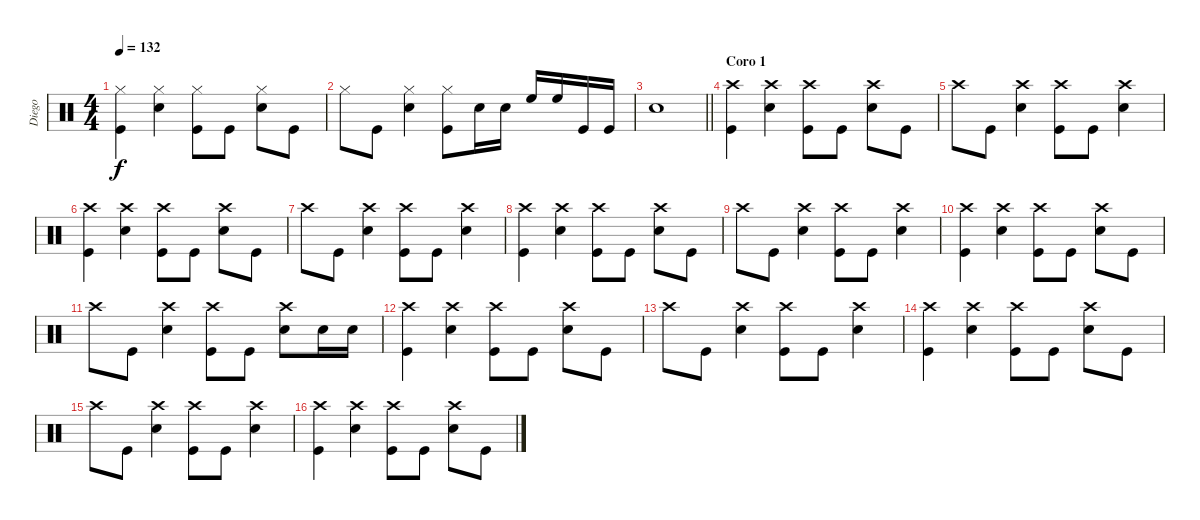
\track ("Diego" "Diego") {instrument percussion}
\staff {score}
\articulation defaults
\ts (4 4)
\tempo 132
\clef neutral
\ks c
("Hi-Hat (closed)" "Kick (hit)").4{dy f} ("Hi-Hat (closed)" "Snare (hit) 2").4 ("Hi-Hat (closed)" "Kick (hit)").8 "Kick (hit)".8 ("Hi-Hat (closed)" "Snare (hit) 2").8 "Kick (hit)".8 |
"Hi-Hat (closed)".8 "Kick (hit)".8 ("Hi-Hat (closed)" "Snare (hit) 2").4 ("Hi-Hat (closed)" "Kick (hit)").8 "Snare (hit) 2".16 "Snare (hit) 2".16 "High Floor Tom (hit)".16 "High Floor Tom (hit)".16 "Kick (hit)".16 "Kick (hit)".16 |
\barLineRight lightlight "Snare (hit) 2".1
|
\section ("" "Coro 1")
("Crash high (hit)" "Kick (hit)").4 ("Crash high (hit)" "Snare (hit) 2").4 ("Crash high (hit)" "Kick (hit)").8 "Kick (hit)".8 ("Crash high (hit)" "Snare (hit) 2").8 "Kick (hit)".8 |
"Crash high (hit)".8 "Kick (hit)".8 ("Crash high (hit)" "Snare (hit) 2").4 ("Crash high (hit)" "Kick (hit)").8 "Kick (hit)".8 ("Crash high (hit)" "Snare (hit) 2").4 |
("Crash high (hit)" "Kick (hit)").4 ("Crash high (hit)" "Snare (hit) 2").4 ("Crash high (hit)" "Kick (hit)").8 "Kick (hit)".8 ("Crash high (hit)" "Snare (hit) 2").8 "Kick (hit)".8 |
"Crash high (hit)".8 "Kick (hit)".8 ("Crash high (hit)" "Snare (hit) 2").4 ("Crash high (hit)" "Kick (hit)").8 "Kick (hit)".8 ("Crash high (hit)" "Snare (hit) 2").4 |
("Crash high (hit)" "Kick (hit)").4 ("Crash high (hit)" "Snare (hit) 2").4 ("Crash high (hit)" "Kick (hit)").8 "Kick (hit)".8 ("Crash high (hit)" "Snare (hit) 2").8 "Kick (hit)".8 |
"Crash high (hit)".8 "Kick (hit)".8 ("Crash high (hit)" "Snare (hit) 2").4 ("Crash high (hit)" "Kick (hit)").8 "Kick (hit)".8 ("Crash high (hit)" "Snare (hit) 2").4 |
("Crash high (hit)" "Kick (hit)").4 ("Crash high (hit)" "Snare (hit) 2").4 ("Crash high (hit)" "Kick (hit)").8 "Kick (hit)".8 ("Crash high (hit)" "Snare (hit) 2").8 "Kick (hit)".8 |
"Crash high (hit)".8 "Kick (hit)".8 ("Crash high (hit)" "Snare (hit) 2").4 ("Crash high (hit)" "Kick (hit)").8 "Kick (hit)".8 ("Crash high (hit)" "Snare (hit) 2").8 "Snare (hit) 2".16 "Snare (hit) 2".16 |
("Crash high (hit)" "Kick (hit)").4 ("Crash high (hit)" "Snare (hit) 2").4 ("Crash high (hit)" "Kick (hit)").8 "Kick (hit)".8 ("Crash high (hit)" "Snare (hit) 2").8 "Kick (hit)".8 |
"Crash high (hit)".8 "Kick (hit)".8 ("Crash high (hit)" "Snare (hit) 2").4 ("Crash high (hit)" "Kick (hit)").8 "Kick (hit)".8 ("Crash high (hit)" "Snare (hit) 2").4 |
("Crash high (hit)" "Kick (hit)").4 ("Crash high (hit)" "Snare (hit) 2").4 ("Crash high (hit)" "Kick (hit)").8 "Kick (hit)".8 ("Crash high (hit)" "Snare (hit) 2").8 "Kick (hit)".8 |
"Crash high (hit)".8 "Kick (hit)".8 ("Crash high (hit)" "Snare (hit) 2").4 ("Crash high (hit)" "Kick (hit)").8 "Kick (hit)".8 ("Crash high (hit)" "Snare (hit) 2").4 |
("Crash high (hit)" "Kick (hit)").4 ("Crash high (hit)" "Snare (hit) 2").4 ("Crash high (hit)" "Kick (hit)").8 "Kick (hit)".8 ("Crash high (hit)" "Snare (hit) 2").8 "Kick (hit)".8
